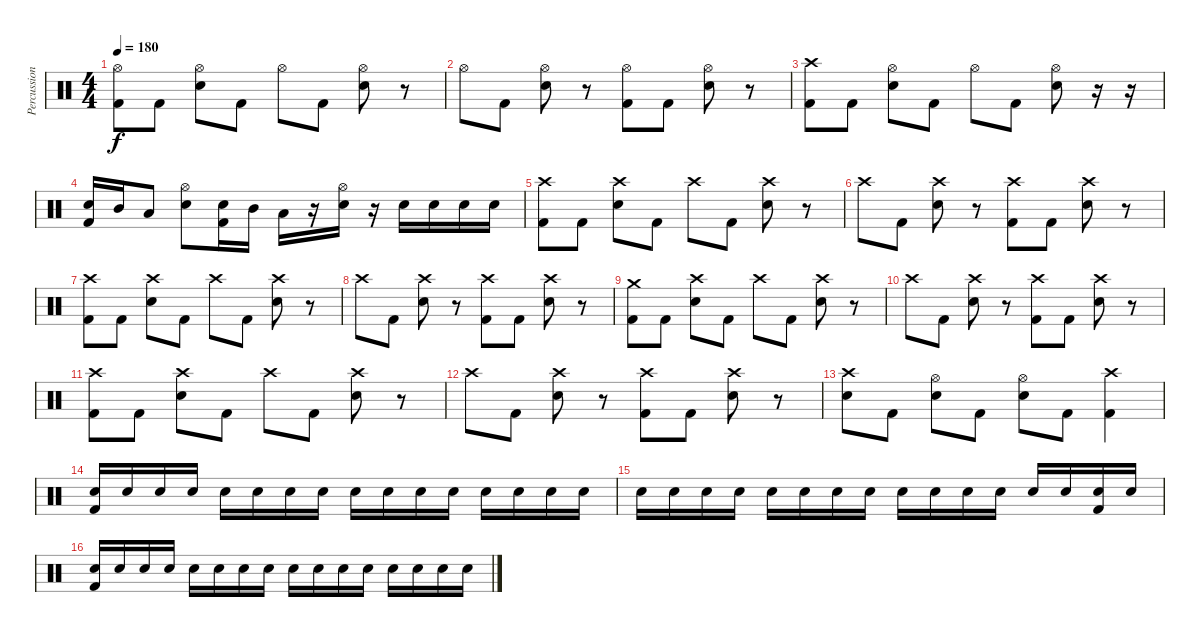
\track ("Percussion" "Percussion") {instrument percussion}
\staff {score}
\articulation defaults
\ts (4 4)
\tempo 180
\clef neutral
\ks c
("Hi-Hat (open)" "Kick (hit) 2").8{dy f} "Kick (hit) 2".8 ("Hi-Hat (open)" "Snare (hit) 2").8 "Kick (hit) 2".8 "Hi-Hat (open)".8 "Kick (hit) 2".8 ("Hi-Hat (open)" "Snare (hit) 2").8 r.8 |
"Hi-Hat (open)".8 "Kick (hit) 2".8 ("Hi-Hat (open)" "Snare (hit) 2").8 r.8 ("Hi-Hat (open)" "Kick (hit) 2").8 "Kick (hit) 2".8 ("Hi-Hat (open)" "Snare (hit) 2").8 r.8 |
("Crash high (hit)" "Kick (hit) 2").8 "Kick (hit) 2".8 ("Hi-Hat (open)" "Snare (hit) 2").8 "Kick (hit) 2".8 "Hi-Hat (open)".8 "Kick (hit) 2".8 ("Hi-Hat (open)" "Snare (hit) 2").8 r.16 r.16 |
("Snare (hit) 2" "Kick (hit) 2").16 "Mid Tom (hit)".16 "Low Tom (hit)".8 ("Hi-Hat (open)" "Snare (hit) 2").8 ("Snare (hit) 2" "Kick (hit) 2").16 "Mid Tom (hit)".16 "Low Tom (hit)".16 r.16 ("Hi-Hat (open)" "Snare (hit) 2").16 r.16 "Snare (hit) 2".16 "Snare (hit) 2".16 "Snare (hit) 2".16 "Snare (hit) 2".16 |
("Crash high (hit)" "Kick (hit) 2").8 "Kick (hit) 2".8 ("Crash high (hit)" "Snare (hit) 2").8 "Kick (hit) 2".8 "Crash high (hit)".8 "Kick (hit) 2".8 ("Crash high (hit)" "Snare (hit) 2").8 r.8 |
"Crash high (hit)".8 "Kick (hit) 2".8 ("Crash high (hit)" "Snare (hit) 2").8 r.8 ("Crash high (hit)" "Kick (hit) 2").8 "Kick (hit) 2".8 ("Crash high (hit)" "Snare (hit) 2").8 r.8 |
("Crash high (hit)" "Kick (hit) 2").8 "Kick (hit) 2".8 ("Crash high (hit)" "Snare (hit) 2").8 "Kick (hit) 2".8 "Crash high (hit)".8 "Kick (hit) 2".8 ("Crash high (hit)" "Snare (hit) 2").8 r.8 |
"Crash high (hit)".8 "Kick (hit) 2".8 ("Crash high (hit)" "Snare (hit) 2").8 r.8 ("Crash high (hit)" "Kick (hit) 2").8 "Kick (hit) 2".8 ("Crash high (hit)" "Snare (hit) 2").8 r.8 |
("Crash medium (hit)" "Kick (hit) 2").8 "Kick (hit) 2".8 ("Crash high (hit)" "Snare (hit) 2").8 "Kick (hit) 2".8 "Crash high (hit)".8 "Kick (hit) 2".8 ("Crash high (hit)" "Snare (hit) 2").8 r.8 |
"Crash high (hit)".8 "Kick (hit) 2".8 ("Crash high (hit)" "Snare (hit) 2").8 r.8 ("Crash high (hit)" "Kick (hit) 2").8 "Kick (hit) 2".8 ("Crash high (hit)" "Snare (hit) 2").8 r.8 |
("Crash high (hit)" "Kick (hit) 2").8 "Kick (hit) 2".8 ("Crash high (hit)" "Snare (hit) 2").8 "Kick (hit) 2".8 "Crash high (hit)".8 "Kick (hit) 2".8 ("Crash high (hit)" "Snare (hit) 2").8 r.8 |
"Crash high (hit)".8 "Kick (hit) 2".8 ("Crash high (hit)" "Snare (hit) 2").8 r.8 ("Crash high (hit)" "Kick (hit) 2").8 "Kick (hit) 2".8 ("Crash high (hit)" "Snare (hit) 2").8 r.8 |
("Crash high (hit)" "Snare (hit) 2").8 "Kick (hit) 2".8 ("Hi-Hat (open)" "Snare (hit) 2").8 "Kick (hit) 2".8 ("Hi-Hat (open)" "Snare (hit) 2").8 "Kick (hit) 2".8 ("Crash high (hit)" "Kick (hit) 2").4 |
("Snare (hit) 2" "Kick (hit) 2").16 "Snare (hit) 2".16 "Snare (hit) 2".16 "Snare (hit) 2".16 "Snare (hit) 2".16 "Snare (hit) 2".16 "Snare (hit) 2".16 "Snare (hit) 2".16 "Snare (hit) 2".16 "Snare (hit) 2".16 "Snare (hit) 2".16 "Snare (hit) 2".16 "Snare (hit) 2".16 "Snare (hit) 2".16 "Snare (hit) 2".16 "Snare (hit) 2".16 |
"Snare (hit) 2".16 "Snare (hit) 2".16 "Snare (hit) 2".16 "Snare (hit) 2".16 "Snare (hit) 2".16 "Snare (hit) 2".16 "Snare (hit) 2".16 "Snare (hit) 2".16 "Snare (hit) 2".16 "Snare (hit) 2".16 "Snare (hit) 2".16 "Snare (hit) 2".16 "Snare (hit) 2".16 "Snare (hit) 2".16 ("Snare (hit) 2" "Kick (hit) 2").16 "Snare (hit) 2".16 |
("Snare (hit) 2" "Kick (hit) 2").16 "Snare (hit) 2".16 "Snare (hit) 2".16 "Snare (hit) 2".16 "Snare (hit) 2".16 "Snare (hit) 2".16 "Snare (hit) 2".16 "Snare (hit) 2".16 "Snare (hit) 2".16 "Snare (hit) 2".16 "Snare (hit) 2".16 "Snare (hit) 2".16 "Snare (hit) 2".16 "Snare (hit) 2".16 "Snare (hit) 2".16 "Snare (hit) 2".16
